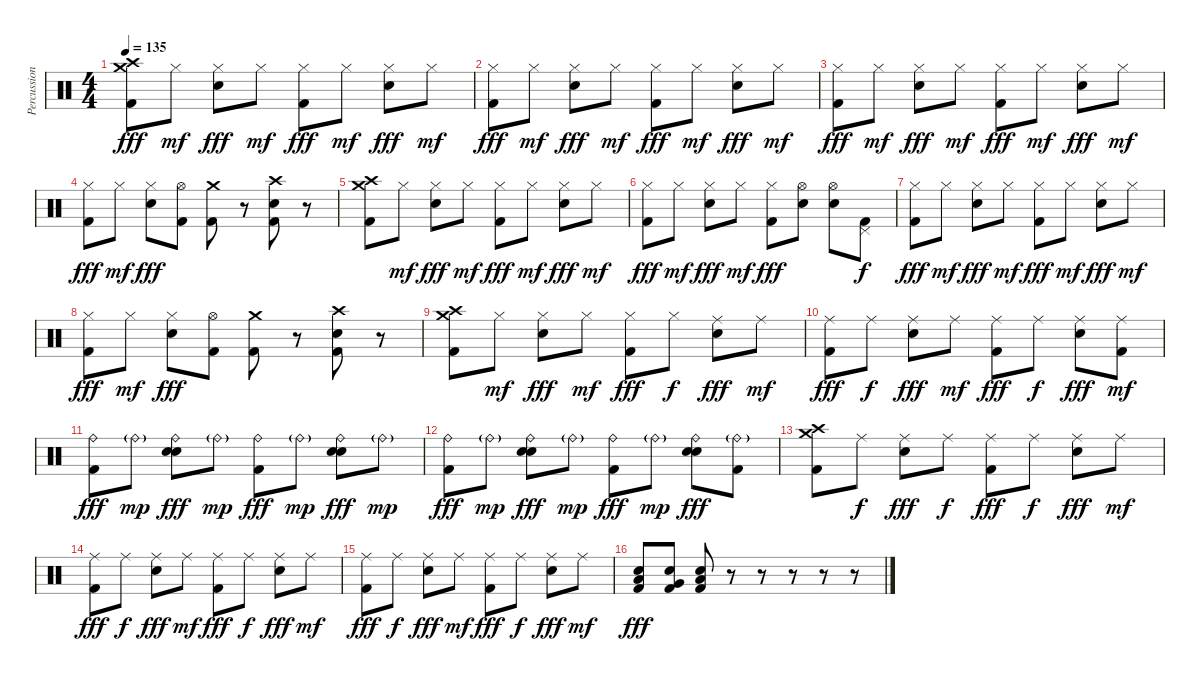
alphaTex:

\track ("Percussions" "Percussion") {instrument percussion}
\staff {score}
\articulation defaults
\ts (4 4)
\tempo 135
\clef neutral
\ks c
("Crash medium (hit)" "Crash high (hit)" "Kick (hit) 2").8{dy fff} "Hi-Hat (closed)".8{dy mf} ("Hi-Hat (closed)" "Electric Snare (hit)").8{dy fff} "Hi-Hat (closed)".8{dy mf} ("Hi-Hat (closed)" "Kick (hit) 2").8{dy fff} "Hi-Hat (closed)".8{dy mf} ("Hi-Hat (closed)" "Electric Snare (hit)").8{dy fff} "Hi-Hat (closed)".8{dy mf} |
("Hi-Hat (closed)" "Kick (hit) 2").8{dy fff} "Hi-Hat (closed)".8{dy mf} ("Hi-Hat (closed)" "Electric Snare (hit)").8{dy fff} "Hi-Hat (closed)".8{dy mf} ("Hi-Hat (closed)" "Kick (hit) 2").8{dy fff} "Hi-Hat (closed)".8{dy mf} ("Hi-Hat (closed)" "Electric Snare (hit)").8{dy fff} "Hi-Hat (closed)".8{dy mf} |
("Hi-Hat (closed)" "Kick (hit) 2").8{dy fff} "Hi-Hat (closed)".8{dy mf} ("Hi-Hat (closed)" "Electric Snare (hit)").8{dy fff} "Hi-Hat (closed)".8{dy mf} ("Hi-Hat (closed)" "Kick (hit) 2").8{dy fff} "Hi-Hat (closed)".8{dy mf} ("Hi-Hat (closed)" "Electric Snare (hit)").8{dy fff} "Hi-Hat (closed)".8{dy mf} |
("Hi-Hat (closed)" "Kick (hit) 2").8{dy fff} "Hi-Hat (closed)".8{dy mf} ("Hi-Hat (closed)" "Electric Snare (hit)").8{dy fff} ("Hi-Hat (open)" "Kick (hit) 2").8 ("Crash medium (hit)" "Kick (hit) 2").8 r.8 ("Crash high (hit)" "Electric Snare (hit)" "Kick (hit) 2").8 r.8 |
("Crash medium (hit)" "Crash high (hit)" "Kick (hit) 2").8 "Hi-Hat (closed)".8{dy mf} ("Hi-Hat (closed)" "Electric Snare (hit)").8{dy fff} "Hi-Hat (closed)".8{dy mf} ("Hi-Hat (closed)" "Kick (hit) 2").8{dy fff} "Hi-Hat (closed)".8{dy mf} ("Hi-Hat (closed)" "Electric Snare (hit)").8{dy fff} "Hi-Hat (closed)".8{dy mf} |
("Hi-Hat (closed)" "Kick (hit) 2").8{dy fff} "Hi-Hat (closed)".8{dy mf} ("Hi-Hat (closed)" "Electric Snare (hit)").8{dy fff} "Hi-Hat (closed)".8{dy mf} ("Hi-Hat (closed)" "Kick (hit) 2").8{dy fff} ("Hi-Hat (open)" "Electric Snare (hit)").8 ("Hi-Hat (open)" "Electric Snare (hit)").8 ("Pedal Hi-Hat (hit)" "Kick (hit) 2").8{dy f} |
("Hi-Hat (closed)" "Kick (hit) 2").8{dy fff} "Hi-Hat (closed)".8{dy mf} ("Hi-Hat (closed)" "Electric Snare (hit)").8{dy fff} "Hi-Hat (closed)".8{dy mf} ("Hi-Hat (closed)" "Kick (hit) 2").8{dy fff} "Hi-Hat (closed)".8{dy mf} ("Hi-Hat (closed)" "Electric Snare (hit)").8{dy fff} "Hi-Hat (closed)".8{dy mf} |
("Hi-Hat (closed)" "Kick (hit) 2").8{dy fff} "Hi-Hat (closed)".8{dy mf} ("Hi-Hat (closed)" "Electric Snare (hit)").8{dy fff} ("Hi-Hat (open)" "Kick (hit) 2").8 ("Crash medium (hit)" "Kick (hit) 2").8 r.8 ("Crash high (hit)" "Electric Snare (hit)" "Kick (hit) 2").8 r.8 |
("Crash medium (hit)" "Crash high (hit)" "Kick (hit) 2").8 "Hi-Hat (closed)".8{dy mf} ("Hi-Hat (closed)" "Electric Snare (hit)").8{dy fff} "Hi-Hat (closed)".8{dy mf} ("Hi-Hat (closed)" "Kick (hit) 2").8{dy fff} "Hi-Hat (closed)".8{dy f} ("Ride (middle)" "Electric Snare (hit)").8{dy fff} "Ride (middle)".8{dy mf} |
("Ride (middle)" "Kick (hit) 2").8{dy fff} "Ride (middle)".8{dy f} ("Ride (middle)" "Electric Snare (hit)").8{dy fff} "Ride (middle)".8{dy mf} ("Ride (middle)" "Kick (hit) 2").8{dy fff} "Ride (middle)".8{dy f} ("Ride (middle)" "Electric Snare (hit)").8{dy fff} ("Ride (middle)" "Kick (hit) 2").8{dy mf} |
("Ride (bell)" "Kick (hit) 2").8{dy fff} "Ride (bell)"{g}.8{dy mp} ("Ride (bell)" "Snare (hit) 2" "Electric Snare (hit)").8{dy fff} "Ride (bell)"{g}.8{dy mp} ("Ride (bell)" "Kick (hit) 2").8{dy fff} "Ride (bell)"{g}.8{dy mp} ("Ride (bell)" "Snare (hit) 2" "Electric Snare (hit)").8{dy fff} "Ride (bell)"{g}.8{dy mp} |
("Ride (bell)" "Kick (hit) 2").8{dy fff} "Ride (bell)"{g}.8{dy mp} ("Ride (bell)" "Snare (hit) 2" "Electric Snare (hit)").8{dy fff} "Ride (bell)"{g}.8{dy mp} ("Ride (bell)" "Kick (hit) 2").8{dy fff} "Ride (bell)"{g}.8{dy mp} ("Ride (bell)" "Snare (hit) 2" "Electric Snare (hit)").8{dy fff} ("Ride (bell)"{g} "Kick (hit) 2").8 |
("Crash medium (hit)" "Crash high (hit)" "Kick (hit) 2").8 "Ride (middle)".8{dy f} ("Ride (middle)" "Electric Snare (hit)").8{dy fff} "Ride (middle)".8{dy f} ("Ride (middle)" "Kick (hit) 2").8{dy fff} "Ride (middle)".8{dy f} ("Ride (middle)" "Electric Snare (hit)").8{dy fff} "Ride (middle)".8{dy mf} |
("Ride (middle)" "Kick (hit) 2").8{dy fff} "Ride (middle)".8{dy f} ("Ride (middle)" "Electric Snare (hit)").8{dy fff} "Ride (middle)".8{dy mf} ("Ride (middle)" "Kick (hit) 2").8{dy fff} "Ride (middle)".8{dy f} ("Ride (middle)" "Electric Snare (hit)").8{dy fff} "Ride (middle)".8{dy mf} |
("Ride (middle)" "Kick (hit) 2").8{dy fff} "Ride (middle)".8{dy f} ("Ride (middle)" "Electric Snare (hit)").8{dy fff} "Ride (middle)".8{dy mf} ("Ride (middle)" "Kick (hit) 2").8{dy fff} "Ride (middle)".8{dy f} ("Ride (middle)" "Electric Snare (hit)").8{dy fff} "Ride (middle)".8{dy mf} |
("Low Tom (hit)" "Electric Snare (hit)" "Kick (hit) 2").8{dy fff} ("Electric Snare (hit)" "Very Low Tom (hit)" "Kick (hit) 2").8 ("Electric Snare (hit)" "Low Floor Tom (hit)" "Kick (hit) 2").8 r.8 r.8 r.8 r.8 r.8
